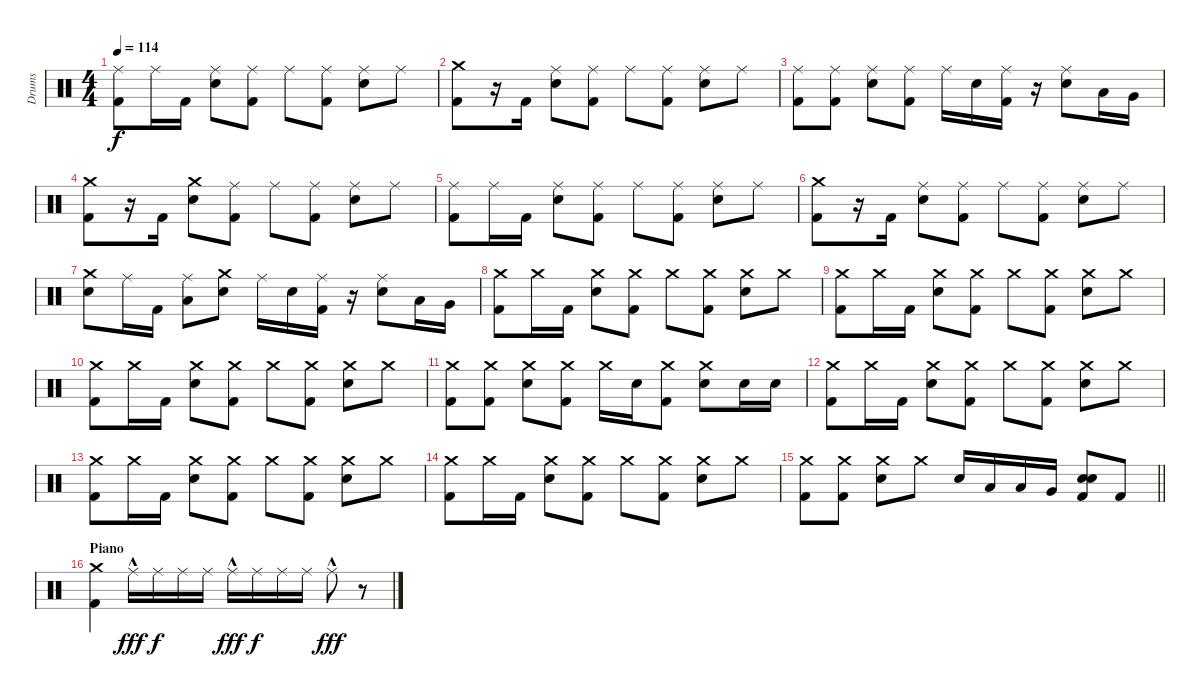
\track ("Drums" "Drums") {instrument percussion}
\staff {score}
\articulation defaults
\ts (4 4)
\tempo 114
\clef neutral
\ks c
("Ride (middle)" "Kick (hit) 2").8{dy f} "Ride (middle)".16 "Kick (hit) 2".16 ("Ride (middle)" "Electric Snare (hit)").8 ("Ride (middle)" "Kick (hit) 2").8 "Ride (middle)".8 ("Ride (middle)" "Kick (hit) 2").8 ("Ride (middle)" "Electric Snare (hit)").8 "Ride (middle)".8 |
("Crash medium (hit)" "Kick (hit) 2").8 r.16 "Kick (hit) 2".16 ("Ride (middle)" "Electric Snare (hit)").8 ("Ride (middle)" "Kick (hit) 2").8 "Ride (middle)".8 ("Ride (middle)" "Kick (hit) 2").8 ("Ride (middle)" "Electric Snare (hit)").8 "Ride (middle)".8 |
("Ride (middle)" "Kick (hit) 2").8 ("Ride (middle)" "Kick (hit) 2").8 ("Ride (middle)" "Electric Snare (hit)").8 ("Ride (middle)" "Kick (hit) 2").8 "Ride (middle)".16 "Electric Snare (hit)".16 ("Ride (middle)" "Kick (hit) 2").16 r.16 ("Ride (middle)" "Electric Snare (hit)").8 "Low Tom (hit)".16 "Very Low Tom (hit)".16 |
("Crash medium (hit)" "Kick (hit) 2").8 r.16 "Kick (hit) 2".16 ("Crash medium (hit)" "Electric Snare (hit)").8 ("Ride (middle)" "Kick (hit) 2").8 "Ride (middle)".8 ("Ride (middle)" "Kick (hit) 2").8 ("Ride (middle)" "Electric Snare (hit)").8 "Ride (middle)".8 |
("Ride (middle)" "Kick (hit) 2").8 "Ride (middle)".16 "Kick (hit) 2".16 ("Ride (middle)" "Electric Snare (hit)").8 ("Ride (middle)" "Kick (hit) 2").8 "Ride (middle)".8 ("Ride (middle)" "Kick (hit) 2").8 ("Ride (middle)" "Electric Snare (hit)").8 "Ride (middle)".8 |
("Crash medium (hit)" "Kick (hit) 2").8 r.16 "Kick (hit) 2".16 ("Ride (middle)" "Electric Snare (hit)").8 ("Ride (middle)" "Kick (hit) 2").8 "Ride (middle)".8 ("Ride (middle)" "Kick (hit) 2").8 ("Ride (middle)" "Electric Snare (hit)").8 "Ride (middle)".8 |
("Crash medium (hit)" "Electric Snare (hit)").8 "Ride (middle)".16 "Kick (hit) 2".16 ("Ride (middle)" "Low Tom (hit)").8 ("Crash medium (hit)" "Electric Snare (hit)").8 "Ride (middle)".16 "Electric Snare (hit)".16 ("Ride (middle)" "Kick (hit) 2").16 r.16 ("Ride (middle)" "Electric Snare (hit)").8 "Low Tom (hit)".16 "Very Low Tom (hit)".16 |
("Crash medium (hit)" "Kick (hit) 2").8 "Crash medium (hit)".16 "Kick (hit) 2".16 ("Crash medium (hit)" "Electric Snare (hit)").8 ("Crash medium (hit)" "Kick (hit) 2").8 "Crash medium (hit)".8 ("Crash medium (hit)" "Kick (hit) 2").8 ("Crash medium (hit)" "Electric Snare (hit)").8 "Crash medium (hit)".8 |
("Crash medium (hit)" "Kick (hit) 2").8 "Crash medium (hit)".16 "Kick (hit) 2".16 ("Crash medium (hit)" "Electric Snare (hit)").8 ("Crash medium (hit)" "Kick (hit) 2").8 "Crash medium (hit)".8 ("Crash medium (hit)" "Kick (hit) 2").8 ("Crash medium (hit)" "Electric Snare (hit)").8 "Crash medium (hit)".8 |
("Crash medium (hit)" "Kick (hit) 2").8 "Crash medium (hit)".16 "Kick (hit) 2".16 ("Crash medium (hit)" "Electric Snare (hit)").8 ("Crash medium (hit)" "Kick (hit) 2").8 "Crash medium (hit)".8 ("Crash medium (hit)" "Kick (hit) 2").8 ("Crash medium (hit)" "Electric Snare (hit)").8 "Crash medium (hit)".8 |
("Crash medium (hit)" "Kick (hit) 2").8 ("Crash medium (hit)" "Kick (hit) 2").8 ("Crash medium (hit)" "Electric Snare (hit)").8 ("Crash medium (hit)" "Kick (hit) 2").8 "Crash medium (hit)".16 "Electric Snare (hit)".16 ("Crash medium (hit)" "Kick (hit) 2").8 ("Crash medium (hit)" "Electric Snare (hit)").8 "Electric Snare (hit)".16 "Electric Snare (hit)".16 |
("Crash medium (hit)" "Kick (hit) 2").8 "Crash medium (hit)".16 "Kick (hit) 2".16 ("Crash medium (hit)" "Electric Snare (hit)").8 ("Crash medium (hit)" "Kick (hit) 2").8 "Crash medium (hit)".8 ("Crash medium (hit)" "Kick (hit) 2").8 ("Crash medium (hit)" "Electric Snare (hit)").8 "Crash medium (hit)".8 |
("Crash medium (hit)" "Kick (hit) 2").8 "Crash medium (hit)".16 "Kick (hit) 2".16 ("Crash medium (hit)" "Electric Snare (hit)").8 ("Crash medium (hit)" "Kick (hit) 2").8 "Crash medium (hit)".8 ("Crash medium (hit)" "Kick (hit) 2").8 ("Crash medium (hit)" "Electric Snare (hit)").8 "Crash medium (hit)".8 |
("Crash medium (hit)" "Kick (hit) 2").8 "Crash medium (hit)".16 "Kick (hit) 2".16 ("Crash medium (hit)" "Electric Snare (hit)").8 ("Crash medium (hit)" "Kick (hit) 2").8 "Crash medium (hit)".8 ("Crash medium (hit)" "Kick (hit) 2").8 ("Crash medium (hit)" "Electric Snare (hit)").8 "Crash medium (hit)".8 |
\barLineRight lightlight
("Crash medium (hit)" "Kick (hit) 2").8 ("Crash medium (hit)" "Kick (hit) 2").8 ("Crash medium (hit)" "Electric Snare (hit)").8 "Crash medium (hit)".8 "Electric Snare (hit)".16 "Low Tom (hit)".16 "Low Tom (hit)".16 "Very Low Tom (hit)".16 ("Electric Snare (hit)" "Electric Snare (hit)" "Kick (hit) 2").8 "Kick (hit) 2".8 |
\section ("" "Piano")
("Crash medium (hit)" "Kick (hit) 2").4 "Ride (middle)"{hac}.16{dy fff} "Ride (middle)".16{dy f} "Ride (middle)".16 "Ride (middle)".16 "Ride (middle)"{hac}.16{dy fff} "Ride (middle)".16{dy f} "Ride (middle)".16 "Ride (middle)".16 "Ride (middle)"{hac}.8{dy fff} r.8
